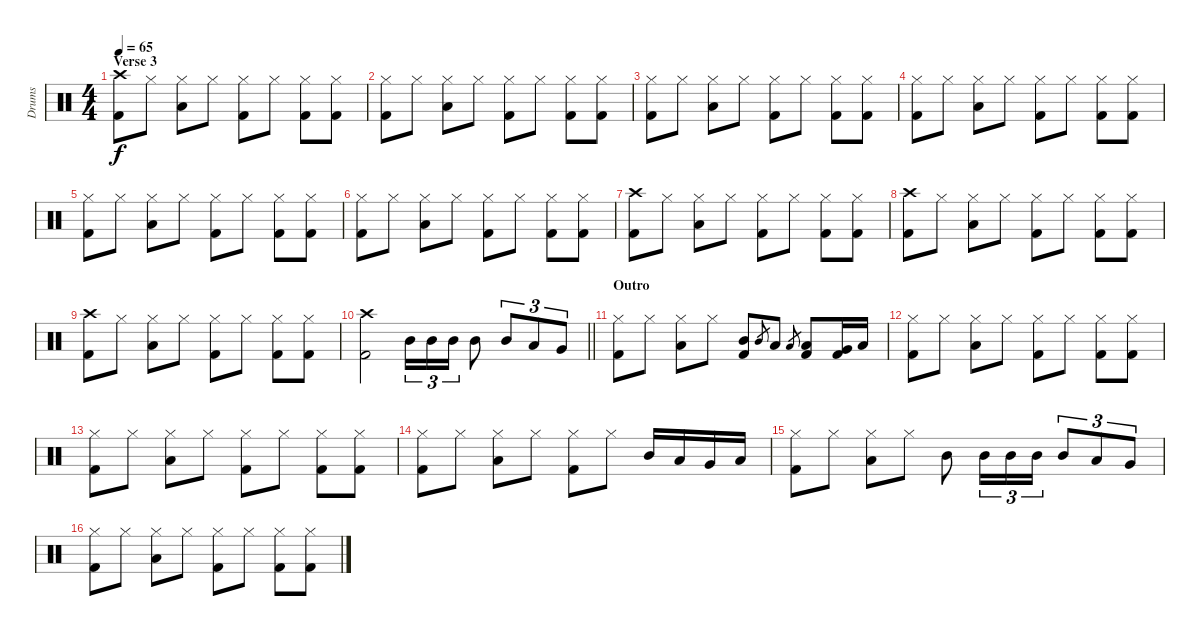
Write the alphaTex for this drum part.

\track ("Drums" "Drums") {instrument percussion}
\staff {score}
\articulation defaults
\ts (4 4)
\section ("" "Verse 3")
\tempo 65
\clef neutral
\ks c
("Crash high (hit)" "Kick (hit) 2").8{dy f} "Hi-Hat (closed)".8 ("Hi-Hat (closed)" "Low Floor Tom (hit)").8 "Hi-Hat (closed)".8 ("Hi-Hat (closed)" "Kick (hit) 2").8 "Hi-Hat (closed)".8 ("Hi-Hat (closed)" "Kick (hit) 2").8 ("Hi-Hat (closed)" "Kick (hit) 2").8 |
("Hi-Hat (closed)" "Kick (hit) 2").8 "Hi-Hat (closed)".8 ("Hi-Hat (closed)" "Low Floor Tom (hit)").8 "Hi-Hat (closed)".8 ("Hi-Hat (closed)" "Kick (hit) 2").8 "Hi-Hat (closed)".8 ("Hi-Hat (closed)" "Kick (hit) 2").8 ("Hi-Hat (closed)" "Kick (hit) 2").8 |
("Hi-Hat (closed)" "Kick (hit) 2").8 "Hi-Hat (closed)".8 ("Hi-Hat (closed)" "Low Floor Tom (hit)").8 "Hi-Hat (closed)".8 ("Hi-Hat (closed)" "Kick (hit) 2").8 "Hi-Hat (closed)".8 ("Hi-Hat (closed)" "Kick (hit) 2").8 ("Hi-Hat (closed)" "Kick (hit) 2").8 |
("Hi-Hat (closed)" "Kick (hit) 2").8 "Hi-Hat (closed)".8 ("Hi-Hat (closed)" "Low Floor Tom (hit)").8 "Hi-Hat (closed)".8 ("Hi-Hat (closed)" "Kick (hit) 2").8 "Hi-Hat (closed)".8 ("Hi-Hat (closed)" "Kick (hit) 2").8 ("Hi-Hat (closed)" "Kick (hit) 2").8 |
("Hi-Hat (closed)" "Kick (hit) 2").8 "Hi-Hat (closed)".8 ("Hi-Hat (closed)" "Low Floor Tom (hit)").8 "Hi-Hat (closed)".8 ("Hi-Hat (closed)" "Kick (hit) 2").8 "Hi-Hat (closed)".8 ("Hi-Hat (closed)" "Kick (hit) 2").8 ("Hi-Hat (closed)" "Kick (hit) 2").8 |
("Hi-Hat (closed)" "Kick (hit) 2").8 "Hi-Hat (closed)".8 ("Hi-Hat (closed)" "Low Floor Tom (hit)").8 "Hi-Hat (closed)".8 ("Hi-Hat (closed)" "Kick (hit) 2").8 "Hi-Hat (closed)".8 ("Hi-Hat (closed)" "Kick (hit) 2").8 ("Hi-Hat (closed)" "Kick (hit) 2").8 |
("Crash high (hit)" "Kick (hit) 2").8 "Hi-Hat (closed)".8 ("Hi-Hat (closed)" "Low Floor Tom (hit)").8 "Hi-Hat (closed)".8 ("Hi-Hat (closed)" "Kick (hit) 2").8 "Hi-Hat (closed)".8 ("Hi-Hat (closed)" "Kick (hit) 2").8 ("Hi-Hat (closed)" "Kick (hit) 2").8 |
("Crash high (hit)" "Kick (hit) 2").8 "Hi-Hat (closed)".8 ("Hi-Hat (closed)" "Low Floor Tom (hit)").8 "Hi-Hat (closed)".8 ("Hi-Hat (closed)" "Kick (hit) 2").8 "Hi-Hat (closed)".8 ("Hi-Hat (closed)" "Kick (hit) 2").8 ("Hi-Hat (closed)" "Kick (hit) 2").8 |
("Crash high (hit)" "Kick (hit) 2").8 "Hi-Hat (closed)".8 ("Hi-Hat (closed)" "Low Floor Tom (hit)").8 "Hi-Hat (closed)".8 ("Hi-Hat (closed)" "Kick (hit) 2").8 "Hi-Hat (closed)".8 ("Hi-Hat (closed)" "Kick (hit) 2").8 ("Hi-Hat (closed)" "Kick (hit) 2").8 |
\barLineRight lightlight
("Crash high (hit)" "Kick (hit) 2").2 "Mid Tom (hit)".16{tu (3 2)} "Mid Tom (hit)".16{tu (3 2)} "Mid Tom (hit)".16{tu (3 2)} "Mid Tom (hit)".8 "Mid Tom (hit)".8{tu (3 2)} "Low Tom (hit)".8{tu (3 2)} "Very Low Tom (hit)".8{tu (3 2)} |
\section ("" "Outro")
("Hi-Hat (closed)" "Kick (hit) 2").8 "Hi-Hat (closed)".8 ("Hi-Hat (closed)" "Low Floor Tom (hit)").8 "Hi-Hat (closed)".8 ("Mid Tom (hit)" "Kick (hit) 2").8 "Mid Tom (hit)".8{gr} "Low Tom (hit)".8 "Low Tom (hit)".8{gr} ("Low Tom (hit)" "Kick (hit) 2").8 ("Very Low Tom (hit)" "Kick (hit) 2").16 "Low Floor Tom (hit)".16 |
("Hi-Hat (closed)" "Kick (hit) 2").8 "Hi-Hat (closed)".8 ("Hi-Hat (closed)" "Low Floor Tom (hit)").8 "Hi-Hat (closed)".8 ("Hi-Hat (closed)" "Kick (hit) 2").8 "Hi-Hat (closed)".8 ("Hi-Hat (closed)" "Kick (hit) 2").8 ("Hi-Hat (closed)" "Kick (hit) 2").8 |
("Hi-Hat (closed)" "Kick (hit) 2").8 "Hi-Hat (closed)".8 ("Hi-Hat (closed)" "Low Floor Tom (hit)").8 "Hi-Hat (closed)".8 ("Hi-Hat (closed)" "Kick (hit) 2").8 "Hi-Hat (closed)".8 ("Hi-Hat (closed)" "Kick (hit) 2").8 ("Hi-Hat (closed)" "Kick (hit) 2").8 |
("Hi-Hat (closed)" "Kick (hit) 2").8 "Hi-Hat (closed)".8 ("Hi-Hat (closed)" "Low Floor Tom (hit)").8 "Hi-Hat (closed)".8 ("Hi-Hat (closed)" "Kick (hit) 2").8 "Hi-Hat (closed)".8 "Mid Tom (hit)".16 "Low Tom (hit)".16 "Very Low Tom (hit)".16 "Low Floor Tom (hit)".16 |
("Hi-Hat (closed)" "Kick (hit) 2").8 "Hi-Hat (closed)".8 ("Hi-Hat (closed)" "Low Floor Tom (hit)").8 "Hi-Hat (closed)".8 "Mid Tom (hit)".8 "Mid Tom (hit)".16{tu (3 2)} "Mid Tom (hit)".16{tu (3 2)} "Mid Tom (hit)".16{tu (3 2)} "Mid Tom (hit)".8{tu (3 2)} "Low Tom (hit)".8{tu (3 2)} "Very Low Tom (hit)".8{tu (3 2)} |
("Hi-Hat (closed)" "Kick (hit) 2").8 "Hi-Hat (closed)".8 ("Hi-Hat (closed)" "Low Floor Tom (hit)").8 "Hi-Hat (closed)".8 ("Hi-Hat (closed)" "Kick (hit) 2").8 "Hi-Hat (closed)".8 ("Hi-Hat (closed)" "Kick (hit) 2").8 ("Hi-Hat (closed)" "Kick (hit) 2").8
